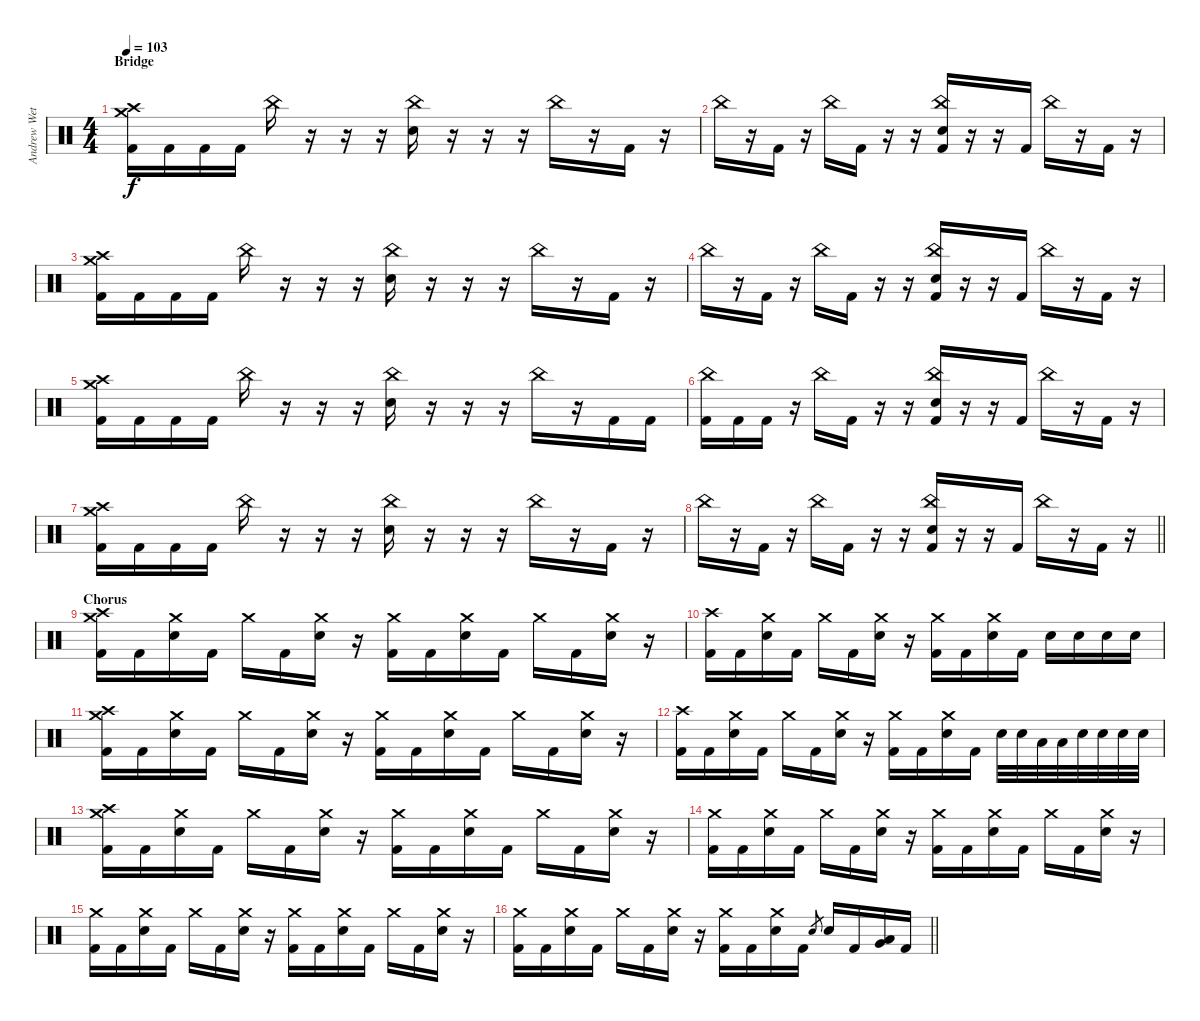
\track ("Andrew Wetzel - Drums" "Andrew Wet") {instrument percussion}
\staff {score}
\articulation defaults
\ts (4 4)
\section ("" "Bridge")
\tempo 103
\clef neutral
\ks c
("Crash high (hit)" "Crash medium (hit)" "Kick (hit) 2").16{dy f} "Kick (hit) 2".16 "Kick (hit) 2".16 "Kick (hit) 2".16 "China (hit)".16 r.16 r.16 r.16 ("China (hit)" "Electric Snare (hit)").16 r.16 r.16 r.16 "China (hit)".16 r.16 "Kick (hit) 2".16 r.16 |
"China (hit)".16 r.16 "Kick (hit) 2".16 r.16 "China (hit)".16 "Kick (hit) 2".16 r.16 r.16 ("China (hit)" "Electric Snare (hit)" "Kick (hit) 2").16 r.16 r.16 "Kick (hit) 2".16 "China (hit)".16 r.16 "Kick (hit) 2".16 r.16 |
("Crash high (hit)" "Crash medium (hit)" "Kick (hit) 2").16 "Kick (hit) 2".16 "Kick (hit) 2".16 "Kick (hit) 2".16 "China (hit)".16 r.16 r.16 r.16 ("China (hit)" "Electric Snare (hit)").16 r.16 r.16 r.16 "China (hit)".16 r.16 "Kick (hit) 2".16 r.16 |
"China (hit)".16 r.16 "Kick (hit) 2".16 r.16 "China (hit)".16 "Kick (hit) 2".16 r.16 r.16 ("China (hit)" "Electric Snare (hit)" "Kick (hit) 2").16 r.16 r.16 "Kick (hit) 2".16 "China (hit)".16 r.16 "Kick (hit) 2".16 r.16 |
("Crash high (hit)" "Crash medium (hit)" "Kick (hit) 2").16 "Kick (hit) 2".16 "Kick (hit) 2".16 "Kick (hit) 2".16 "China (hit)".16 r.16 r.16 r.16 ("China (hit)" "Electric Snare (hit)").16 r.16 r.16 r.16 "China (hit)".16 r.16 "Kick (hit) 2".16 "Kick (hit) 2".16 |
("China (hit)" "Kick (hit) 2").16 "Kick (hit) 2".16 "Kick (hit) 2".16 r.16 "China (hit)".16 "Kick (hit) 2".16 r.16 r.16 ("China (hit)" "Electric Snare (hit)" "Kick (hit) 2").16 r.16 r.16 "Kick (hit) 2".16 "China (hit)".16 r.16 "Kick (hit) 2".16 r.16 |
("Crash high (hit)" "Crash medium (hit)" "Kick (hit) 2").16 "Kick (hit) 2".16 "Kick (hit) 2".16 "Kick (hit) 2".16 "China (hit)".16 r.16 r.16 r.16 ("China (hit)" "Electric Snare (hit)").16 r.16 r.16 r.16 "China (hit)".16 r.16 "Kick (hit) 2".16 r.16 |
\barLineRight lightlight "China (hit)".16
r.16 "Kick (hit) 2".16 r.16 "China (hit)".16 "Kick (hit) 2".16 r.16 r.16 ("China (hit)" "Electric Snare (hit)" "Kick (hit) 2").16 r.16 r.16 "Kick (hit) 2".16 "China (hit)".16 r.16 "Kick (hit) 2".16 r.16 |
\section ("" "Chorus")
("Crash high (hit)" "Crash medium (hit)" "Kick (hit) 2").16 "Kick (hit) 2".16 ("Crash medium (hit)" "Electric Snare (hit)").16 "Kick (hit) 2".16 "Crash medium (hit)".16 "Kick (hit) 2".16 ("Crash medium (hit)" "Electric Snare (hit)").16 r.16 ("Crash medium (hit)" "Kick (hit) 2").16 "Kick (hit) 2".16 ("Crash medium (hit)" "Electric Snare (hit)").16 "Kick (hit) 2".16 "Crash medium (hit)".16 "Kick (hit) 2".16 ("Crash medium (hit)" "Electric Snare (hit)").16 r.16 |
("Crash high (hit)" "Kick (hit) 2").16 "Kick (hit) 2".16 ("Crash medium (hit)" "Electric Snare (hit)").16 "Kick (hit) 2".16 "Crash medium (hit)".16 "Kick (hit) 2".16 ("Crash medium (hit)" "Electric Snare (hit)").16 r.16 ("Crash medium (hit)" "Kick (hit) 2").16 "Kick (hit) 2".16 ("Crash medium (hit)" "Electric Snare (hit)").16 "Kick (hit) 2".16 "Electric Snare (hit)".16 "Electric Snare (hit)".16 "Electric Snare (hit)".16 "Electric Snare (hit)".16 |
("Crash high (hit)" "Crash medium (hit)" "Kick (hit) 2").16 "Kick (hit) 2".16 ("Crash medium (hit)" "Electric Snare (hit)").16 "Kick (hit) 2".16 "Crash medium (hit)".16 "Kick (hit) 2".16 ("Crash medium (hit)" "Electric Snare (hit)").16 r.16 ("Crash medium (hit)" "Kick (hit) 2").16 "Kick (hit) 2".16 ("Crash medium (hit)" "Electric Snare (hit)").16 "Kick (hit) 2".16 "Crash medium (hit)".16 "Kick (hit) 2".16 ("Crash medium (hit)" "Electric Snare (hit)").16 r.16 |
("Crash high (hit)" "Kick (hit) 2").16 "Kick (hit) 2".16 ("Crash medium (hit)" "Electric Snare (hit)").16 "Kick (hit) 2".16 "Crash medium (hit)".16 "Kick (hit) 2".16 ("Crash medium (hit)" "Electric Snare (hit)").16 r.16 ("Crash medium (hit)" "Kick (hit) 2").16 "Kick (hit) 2".16 ("Crash medium (hit)" "Electric Snare (hit)").16 "Kick (hit) 2".16 "Electric Snare (hit)".32 "Electric Snare (hit)".32 "Low Tom (hit)".32 "Low Tom (hit)".32 "Electric Snare (hit)".32 "Electric Snare (hit)".32 "Electric Snare (hit)".32 "Electric Snare (hit)".32 |
("Crash high (hit)" "Crash medium (hit)" "Kick (hit) 2").16 "Kick (hit) 2".16 ("Crash medium (hit)" "Electric Snare (hit)").16 "Kick (hit) 2".16 "Crash medium (hit)".16 "Kick (hit) 2".16 ("Crash medium (hit)" "Electric Snare (hit)").16 r.16 ("Crash medium (hit)" "Kick (hit) 2").16 "Kick (hit) 2".16 ("Crash medium (hit)" "Electric Snare (hit)").16 "Kick (hit) 2".16 "Crash medium (hit)".16 "Kick (hit) 2".16 ("Crash medium (hit)" "Electric Snare (hit)").16 r.16 |
("Crash medium (hit)" "Kick (hit) 2").16 "Kick (hit) 2".16 ("Crash medium (hit)" "Electric Snare (hit)").16 "Kick (hit) 2".16 "Crash medium (hit)".16 "Kick (hit) 2".16 ("Crash medium (hit)" "Electric Snare (hit)").16 r.16 ("Crash medium (hit)" "Kick (hit) 2").16 "Kick (hit) 2".16 ("Crash medium (hit)" "Electric Snare (hit)").16 "Kick (hit) 2".16 "Crash medium (hit)".16 "Kick (hit) 2".16 ("Crash medium (hit)" "Electric Snare (hit)").16 r.16 |
("Crash medium (hit)" "Kick (hit) 2").16 "Kick (hit) 2".16 ("Crash medium (hit)" "Electric Snare (hit)").16 "Kick (hit) 2".16 "Crash medium (hit)".16 "Kick (hit) 2".16 ("Crash medium (hit)" "Electric Snare (hit)").16 r.16 ("Crash medium (hit)" "Kick (hit) 2").16 "Kick (hit) 2".16 ("Crash medium (hit)" "Electric Snare (hit)").16 "Kick (hit) 2".16 "Crash medium (hit)".16 "Kick (hit) 2".16 ("Crash medium (hit)" "Electric Snare (hit)").16 r.16 |
\barLineRight lightlight
("Crash medium (hit)" "Kick (hit) 2").16 "Kick (hit) 2".16 ("Crash medium (hit)" "Electric Snare (hit)").16 "Kick (hit) 2".16 "Crash medium (hit)".16 "Kick (hit) 2".16 ("Crash medium (hit)" "Electric Snare (hit)").16 r.16 ("Crash medium (hit)" "Kick (hit) 2").16 "Kick (hit) 2".16 ("Crash medium (hit)" "Electric Snare (hit)").16 "Kick (hit) 2".16 "Electric Snare (hit)".8{gr} "Electric Snare (hit)".16 "Kick (hit) 2".16 ("Very Low Tom (hit)" "Low Floor Tom (hit)").16 "Kick (hit) 2".16
